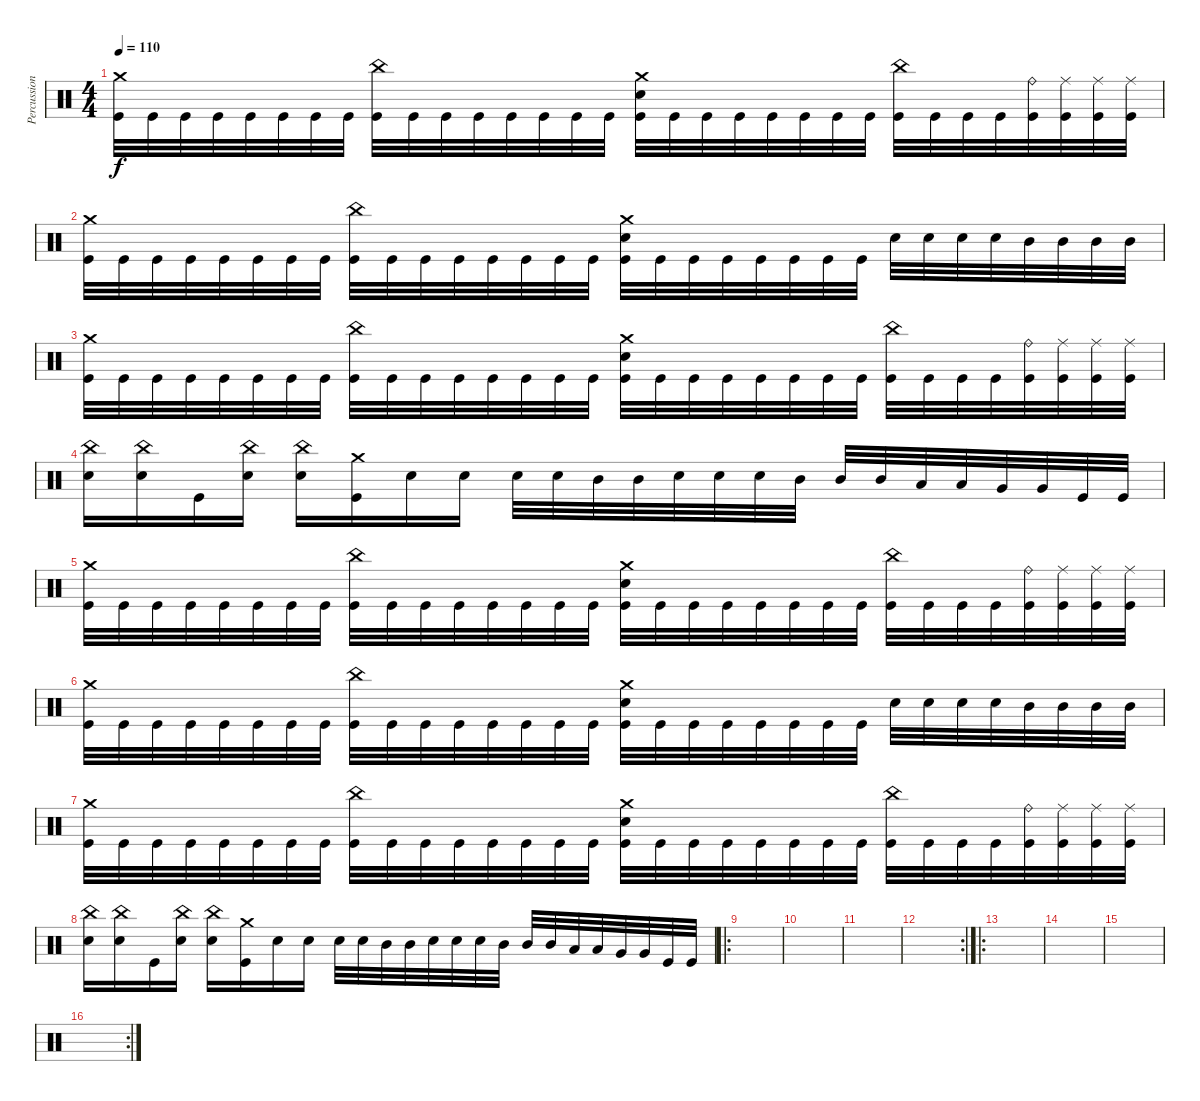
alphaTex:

\track ("Percussion" "Percussion") {instrument percussion}
\staff {score}
\articulation defaults
\ts (4 4)
\tempo 110
\clef neutral
\ks c
("Crash medium (hit)" "Kick (hit)").32{dy f} "Kick (hit)".32 "Kick (hit)".32 "Kick (hit)".32 "Kick (hit)".32 "Kick (hit)".32 "Kick (hit)".32 "Kick (hit)".32 ("China (hit)" "Kick (hit)").32 "Kick (hit)".32 "Kick (hit)".32 "Kick (hit)".32 "Kick (hit)".32 "Kick (hit)".32 "Kick (hit)".32 "Kick (hit)".32 ("Electric Snare (hit)" "Crash medium (hit)" "Kick (hit)").32 "Kick (hit)".32 "Kick (hit)".32 "Kick (hit)".32 "Kick (hit)".32 "Kick (hit)".32 "Kick (hit)".32 "Kick (hit)".32 ("China (hit)" "Kick (hit)").32 "Kick (hit)".32 "Kick (hit)".32 "Kick (hit)".32 ("Ride (bell)" "Kick (hit)").32 ("Ride (middle)" "Kick (hit)").32 ("Ride (middle)" "Kick (hit)").32 ("Ride (middle)" "Kick (hit)").32 |
("Crash medium (hit)" "Kick (hit)").32 "Kick (hit)".32 "Kick (hit)".32 "Kick (hit)".32 "Kick (hit)".32 "Kick (hit)".32 "Kick (hit)".32 "Kick (hit)".32 ("China (hit)" "Kick (hit)").32 "Kick (hit)".32 "Kick (hit)".32 "Kick (hit)".32 "Kick (hit)".32 "Kick (hit)".32 "Kick (hit)".32 "Kick (hit)".32 ("Electric Snare (hit)" "Crash medium (hit)" "Kick (hit)").32 "Kick (hit)".32 "Kick (hit)".32 "Kick (hit)".32 "Kick (hit)".32 "Kick (hit)".32 "Kick (hit)".32 "Kick (hit)".32 "Electric Snare (hit)".32 "Electric Snare (hit)".32 "Electric Snare (hit)".32 "Electric Snare (hit)".32 "Mid Tom (hit)".32 "Mid Tom (hit)".32 "Mid Tom (hit)".32 "Mid Tom (hit)".32 |
("Crash medium (hit)" "Kick (hit)").32 "Kick (hit)".32 "Kick (hit)".32 "Kick (hit)".32 "Kick (hit)".32 "Kick (hit)".32 "Kick (hit)".32 "Kick (hit)".32 ("China (hit)" "Kick (hit)").32 "Kick (hit)".32 "Kick (hit)".32 "Kick (hit)".32 "Kick (hit)".32 "Kick (hit)".32 "Kick (hit)".32 "Kick (hit)".32 ("Electric Snare (hit)" "Crash medium (hit)" "Kick (hit)").32 "Kick (hit)".32 "Kick (hit)".32 "Kick (hit)".32 "Kick (hit)".32 "Kick (hit)".32 "Kick (hit)".32 "Kick (hit)".32 ("China (hit)" "Kick (hit)").32 "Kick (hit)".32 "Kick (hit)".32 "Kick (hit)".32 ("Ride (bell)" "Kick (hit)").32 ("Ride (middle)" "Kick (hit)").32 ("Ride (middle)" "Kick (hit)").32 ("Ride (middle)" "Kick (hit)").32 |
("China (hit)" "Electric Snare (hit)").16 ("China (hit)" "Electric Snare (hit)").16 "Kick (hit)".16 ("China (hit)" "Electric Snare (hit)").16 ("China (hit)" "Electric Snare (hit)").16 ("Crash medium (hit)" "Kick (hit)").16 "Electric Snare (hit)".16 "Electric Snare (hit)".16 "Electric Snare (hit)".32 "Electric Snare (hit)".32 "Mid Tom (hit)".32 "Mid Tom (hit)".32 "Electric Snare (hit)".32 "Electric Snare (hit)".32 "Electric Snare (hit)".32 "Mid Tom (hit)".32 "Mid Tom (hit)".32 "Mid Tom (hit)".32 "Low Tom (hit)".32 "Low Tom (hit)".32 "Very Low Tom (hit)".32 "Very Low Tom (hit)".32 "Kick (hit)".32 "Kick (hit)".32 |
("Crash medium (hit)" "Kick (hit)").32 "Kick (hit)".32 "Kick (hit)".32 "Kick (hit)".32 "Kick (hit)".32 "Kick (hit)".32 "Kick (hit)".32 "Kick (hit)".32 ("China (hit)" "Kick (hit)").32 "Kick (hit)".32 "Kick (hit)".32 "Kick (hit)".32 "Kick (hit)".32 "Kick (hit)".32 "Kick (hit)".32 "Kick (hit)".32 ("Electric Snare (hit)" "Crash medium (hit)" "Kick (hit)").32 "Kick (hit)".32 "Kick (hit)".32 "Kick (hit)".32 "Kick (hit)".32 "Kick (hit)".32 "Kick (hit)".32 "Kick (hit)".32 ("China (hit)" "Kick (hit)").32 "Kick (hit)".32 "Kick (hit)".32 "Kick (hit)".32 ("Ride (bell)" "Kick (hit)").32 ("Ride (middle)" "Kick (hit)").32 ("Ride (middle)" "Kick (hit)").32 ("Ride (middle)" "Kick (hit)").32 |
("Crash medium (hit)" "Kick (hit)").32 "Kick (hit)".32 "Kick (hit)".32 "Kick (hit)".32 "Kick (hit)".32 "Kick (hit)".32 "Kick (hit)".32 "Kick (hit)".32 ("China (hit)" "Kick (hit)").32 "Kick (hit)".32 "Kick (hit)".32 "Kick (hit)".32 "Kick (hit)".32 "Kick (hit)".32 "Kick (hit)".32 "Kick (hit)".32 ("Electric Snare (hit)" "Crash medium (hit)" "Kick (hit)").32 "Kick (hit)".32 "Kick (hit)".32 "Kick (hit)".32 "Kick (hit)".32 "Kick (hit)".32 "Kick (hit)".32 "Kick (hit)".32 "Electric Snare (hit)".32 "Electric Snare (hit)".32 "Electric Snare (hit)".32 "Electric Snare (hit)".32 "Mid Tom (hit)".32 "Mid Tom (hit)".32 "Mid Tom (hit)".32 "Mid Tom (hit)".32 |
("Crash medium (hit)" "Kick (hit)").32 "Kick (hit)".32 "Kick (hit)".32 "Kick (hit)".32 "Kick (hit)".32 "Kick (hit)".32 "Kick (hit)".32 "Kick (hit)".32 ("China (hit)" "Kick (hit)").32 "Kick (hit)".32 "Kick (hit)".32 "Kick (hit)".32 "Kick (hit)".32 "Kick (hit)".32 "Kick (hit)".32 "Kick (hit)".32 ("Electric Snare (hit)" "Crash medium (hit)" "Kick (hit)").32 "Kick (hit)".32 "Kick (hit)".32 "Kick (hit)".32 "Kick (hit)".32 "Kick (hit)".32 "Kick (hit)".32 "Kick (hit)".32 ("China (hit)" "Kick (hit)").32 "Kick (hit)".32 "Kick (hit)".32 "Kick (hit)".32 ("Ride (bell)" "Kick (hit)").32 ("Ride (middle)" "Kick (hit)").32 ("Ride (middle)" "Kick (hit)").32 ("Ride (middle)" "Kick (hit)").32 |
("China (hit)" "Electric Snare (hit)").16 ("China (hit)" "Electric Snare (hit)").16 "Kick (hit)".16 ("China (hit)" "Electric Snare (hit)").16 ("China (hit)" "Electric Snare (hit)").16 ("Crash medium (hit)" "Kick (hit)").16 "Electric Snare (hit)".16 "Electric Snare (hit)".16 "Electric Snare (hit)".32 "Electric Snare (hit)".32 "Mid Tom (hit)".32 "Mid Tom (hit)".32 "Electric Snare (hit)".32 "Electric Snare (hit)".32 "Electric Snare (hit)".32 "Mid Tom (hit)".32 "Mid Tom (hit)".32 "Mid Tom (hit)".32 "Low Tom (hit)".32 "Low Tom (hit)".32 "Very Low Tom (hit)".32 "Very Low Tom (hit)".32 "Kick (hit)".32 "Kick (hit)".32 |
\ro
|
|
|
\rc 2
|
\ro
|
|
|
\rc 2
